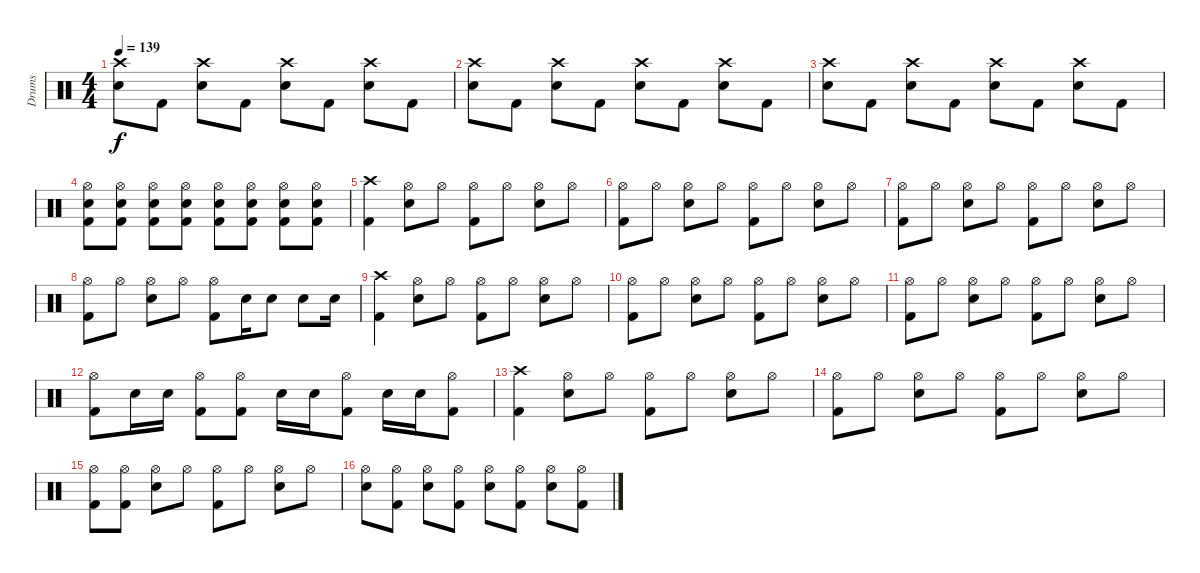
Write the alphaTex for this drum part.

\track ("Drums" "Drums") {instrument percussion}
\staff {score}
\articulation defaults
\ts (4 4)
\tempo 139
\clef neutral
\ks c
("Crash high (hit)" "Electric Snare (hit)").8{dy f} "Kick (hit) 2".8 ("Crash high (hit)" "Electric Snare (hit)").8 "Kick (hit) 2".8 ("Crash high (hit)" "Electric Snare (hit)").8 "Kick (hit) 2".8 ("Crash high (hit)" "Electric Snare (hit)").8 "Kick (hit) 2".8 |
("Crash high (hit)" "Electric Snare (hit)").8 "Kick (hit) 2".8 ("Crash high (hit)" "Electric Snare (hit)").8 "Kick (hit) 2".8 ("Crash high (hit)" "Electric Snare (hit)").8 "Kick (hit) 2".8 ("Crash high (hit)" "Electric Snare (hit)").8 "Kick (hit) 2".8 |
("Crash high (hit)" "Electric Snare (hit)").8 "Kick (hit) 2".8 ("Crash high (hit)" "Electric Snare (hit)").8 "Kick (hit) 2".8 ("Crash high (hit)" "Electric Snare (hit)").8 "Kick (hit) 2".8 ("Crash high (hit)" "Electric Snare (hit)").8 "Kick (hit) 2".8 |
("Hi-Hat (open)" "Electric Snare (hit)" "Kick (hit) 2").8 ("Hi-Hat (open)" "Electric Snare (hit)" "Kick (hit) 2").8 ("Hi-Hat (open)" "Electric Snare (hit)" "Kick (hit) 2").8 ("Hi-Hat (open)" "Electric Snare (hit)" "Kick (hit) 2").8 ("Hi-Hat (open)" "Electric Snare (hit)" "Kick (hit) 2").8 ("Hi-Hat (open)" "Electric Snare (hit)" "Kick (hit) 2").8 ("Hi-Hat (open)" "Electric Snare (hit)" "Kick (hit) 2").8 ("Hi-Hat (open)" "Electric Snare (hit)" "Kick (hit) 2").8 |
("Crash high (hit)" "Kick (hit) 2").4 ("Hi-Hat (open)" "Electric Snare (hit)").8 "Hi-Hat (open)".8 ("Hi-Hat (open)" "Kick (hit) 2").8 "Hi-Hat (open)".8 ("Hi-Hat (open)" "Electric Snare (hit)").8 "Hi-Hat (open)".8 |
("Hi-Hat (open)" "Kick (hit) 2").8 "Hi-Hat (open)".8 ("Hi-Hat (open)" "Electric Snare (hit)").8 "Hi-Hat (open)".8 ("Hi-Hat (open)" "Kick (hit) 2").8 "Hi-Hat (open)".8 ("Hi-Hat (open)" "Electric Snare (hit)").8 "Hi-Hat (open)".8 |
("Hi-Hat (open)" "Kick (hit) 2").8 "Hi-Hat (open)".8 ("Hi-Hat (open)" "Electric Snare (hit)").8 "Hi-Hat (open)".8 ("Hi-Hat (open)" "Kick (hit) 2").8 "Hi-Hat (open)".8 ("Hi-Hat (open)" "Electric Snare (hit)").8 "Hi-Hat (open)".8 |
("Hi-Hat (open)" "Kick (hit) 2").8 "Hi-Hat (open)".8 ("Hi-Hat (open)" "Electric Snare (hit)").8 "Hi-Hat (open)".8 ("Hi-Hat (open)" "Kick (hit) 2").8 "Electric Snare (hit)".16 "Electric Snare (hit)".8 "Electric Snare (hit)".8 "Electric Snare (hit)".16 |
("Crash high (hit)" "Kick (hit) 2").4 ("Hi-Hat (open)" "Electric Snare (hit)").8 "Hi-Hat (open)".8 ("Hi-Hat (open)" "Kick (hit) 2").8 "Hi-Hat (open)".8 ("Hi-Hat (open)" "Electric Snare (hit)").8 "Hi-Hat (open)".8 |
("Hi-Hat (open)" "Kick (hit) 2").8 "Hi-Hat (open)".8 ("Hi-Hat (open)" "Electric Snare (hit)").8 "Hi-Hat (open)".8 ("Hi-Hat (open)" "Kick (hit) 2").8 "Hi-Hat (open)".8 ("Hi-Hat (open)" "Electric Snare (hit)").8 "Hi-Hat (open)".8 |
("Hi-Hat (open)" "Kick (hit) 2").8 "Hi-Hat (open)".8 ("Hi-Hat (open)" "Electric Snare (hit)").8 "Hi-Hat (open)".8 ("Hi-Hat (open)" "Kick (hit) 2").8 "Hi-Hat (open)".8 ("Hi-Hat (open)" "Electric Snare (hit)").8 "Hi-Hat (open)".8 |
("Hi-Hat (open)" "Kick (hit) 2").8 "Electric Snare (hit)".16 "Electric Snare (hit)".16 ("Hi-Hat (open)" "Kick (hit) 2").8 ("Hi-Hat (open)" "Kick (hit) 2").8 "Electric Snare (hit)".16 "Electric Snare (hit)".16 ("Hi-Hat (open)" "Kick (hit) 2").8 "Electric Snare (hit)".16 "Electric Snare (hit)".16 ("Hi-Hat (open)" "Kick (hit) 2").8 |
("Crash high (hit)" "Kick (hit) 2").4 ("Hi-Hat (open)" "Electric Snare (hit)").8 "Hi-Hat (open)".8 ("Hi-Hat (open)" "Kick (hit) 2").8 "Hi-Hat (open)".8 ("Hi-Hat (open)" "Electric Snare (hit)").8 "Hi-Hat (open)".8 |
("Hi-Hat (open)" "Kick (hit) 2").8 "Hi-Hat (open)".8 ("Hi-Hat (open)" "Electric Snare (hit)").8 "Hi-Hat (open)".8 ("Hi-Hat (open)" "Kick (hit) 2").8 "Hi-Hat (open)".8 ("Hi-Hat (open)" "Electric Snare (hit)").8 "Hi-Hat (open)".8 |
("Hi-Hat (open)" "Kick (hit) 2").8 ("Hi-Hat (open)" "Kick (hit) 2").8 ("Hi-Hat (open)" "Electric Snare (hit)").8 "Hi-Hat (open)".8 ("Hi-Hat (open)" "Kick (hit) 2").8 "Hi-Hat (open)".8 ("Hi-Hat (open)" "Electric Snare (hit)").8 "Hi-Hat (open)".8 |
("Hi-Hat (open)" "Electric Snare (hit)").8 ("Hi-Hat (open)" "Kick (hit) 2").8 ("Hi-Hat (open)" "Electric Snare (hit)").8 ("Hi-Hat (open)" "Kick (hit) 2").8 ("Hi-Hat (open)" "Electric Snare (hit)").8 ("Hi-Hat (open)" "Kick (hit) 2").8 ("Hi-Hat (open)" "Electric Snare (hit)").8 ("Hi-Hat (open)" "Kick (hit) 2").8
